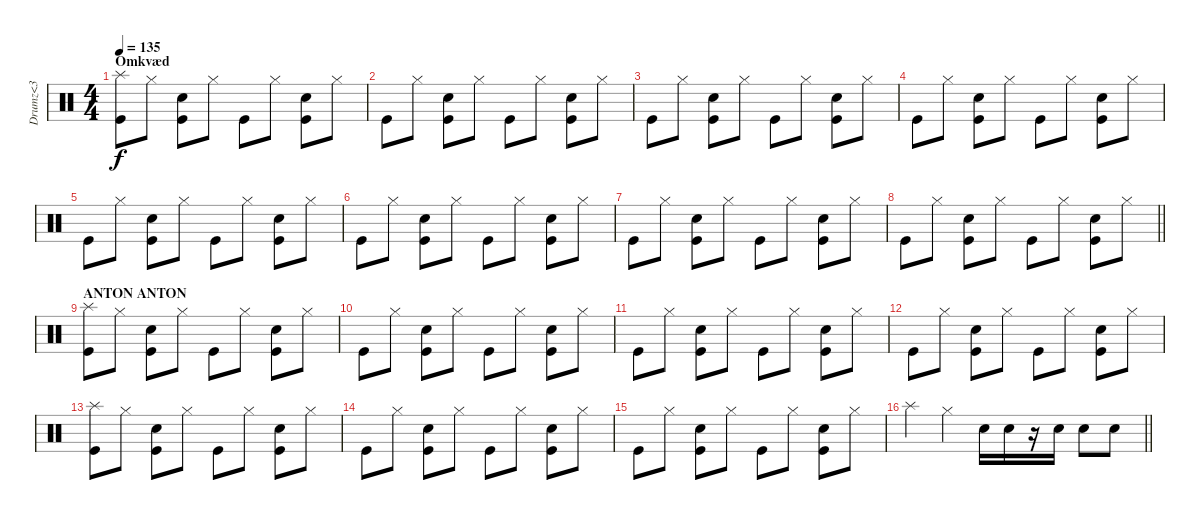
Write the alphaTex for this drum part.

\track ("Drumz<3" "Drumz<3") {instrument percussion}
\staff {score}
\articulation defaults
\ts (4 4)
\section ("" "Omkvæd")
\tempo 135
\clef neutral
\ks c
("Splash (hit)" "Kick (hit)").8{dy f} "Hi-Hat (closed)".8 ("Kick (hit)" "Snare (hit) 2").8 "Hi-Hat (closed)".8 "Kick (hit)".8 "Hi-Hat (closed)".8 ("Kick (hit)" "Snare (hit) 2").8 "Hi-Hat (closed)".8 |
"Kick (hit)".8 "Hi-Hat (closed)".8 ("Kick (hit)" "Snare (hit) 2").8 "Hi-Hat (closed)".8 "Kick (hit)".8 "Hi-Hat (closed)".8 ("Kick (hit)" "Snare (hit) 2").8 "Hi-Hat (closed)".8 |
"Kick (hit)".8 "Hi-Hat (closed)".8 ("Kick (hit)" "Snare (hit) 2").8 "Hi-Hat (closed)".8 "Kick (hit)".8 "Hi-Hat (closed)".8 ("Kick (hit)" "Snare (hit) 2").8 "Hi-Hat (closed)".8 |
"Kick (hit)".8 "Hi-Hat (closed)".8 ("Kick (hit)" "Snare (hit) 2").8 "Hi-Hat (closed)".8 "Kick (hit)".8 "Hi-Hat (closed)".8 ("Kick (hit)" "Snare (hit) 2").8 "Hi-Hat (closed)".8 |
"Kick (hit)".8 "Hi-Hat (closed)".8 ("Kick (hit)" "Snare (hit) 2").8 "Hi-Hat (closed)".8 "Kick (hit)".8 "Hi-Hat (closed)".8 ("Kick (hit)" "Snare (hit) 2").8 "Hi-Hat (closed)".8 |
"Kick (hit)".8 "Hi-Hat (closed)".8 ("Kick (hit)" "Snare (hit) 2").8 "Hi-Hat (closed)".8 "Kick (hit)".8 "Hi-Hat (closed)".8 ("Kick (hit)" "Snare (hit) 2").8 "Hi-Hat (closed)".8 |
"Kick (hit)".8 "Hi-Hat (closed)".8 ("Kick (hit)" "Snare (hit) 2").8 "Hi-Hat (closed)".8 "Kick (hit)".8 "Hi-Hat (closed)".8 ("Kick (hit)" "Snare (hit) 2").8 "Hi-Hat (closed)".8 |
\barLineRight lightlight "Kick (hit)".8 "Hi-Hat (closed)".8
("Kick (hit)" "Snare (hit) 2").8 "Hi-Hat (closed)".8 "Kick (hit)".8 "Hi-Hat (closed)".8 ("Kick (hit)" "Snare (hit) 2").8 "Hi-Hat (closed)".8 |
\section ("" "ANTON ANTON")
("Splash (hit)" "Kick (hit)").8 "Hi-Hat (closed)".8 ("Kick (hit)" "Snare (hit) 2").8 "Hi-Hat (closed)".8 "Kick (hit)".8 "Hi-Hat (closed)".8 ("Kick (hit)" "Snare (hit) 2").8 "Hi-Hat (closed)".8 |
"Kick (hit)".8 "Hi-Hat (closed)".8 ("Kick (hit)" "Snare (hit) 2").8 "Hi-Hat (closed)".8 "Kick (hit)".8 "Hi-Hat (closed)".8 ("Kick (hit)" "Snare (hit) 2").8 "Hi-Hat (closed)".8 |
"Kick (hit)".8 "Hi-Hat (closed)".8 ("Kick (hit)" "Snare (hit) 2").8 "Hi-Hat (closed)".8 "Kick (hit)".8 "Hi-Hat (closed)".8 ("Kick (hit)" "Snare (hit) 2").8 "Hi-Hat (closed)".8 |
"Kick (hit)".8 "Hi-Hat (closed)".8 ("Kick (hit)" "Snare (hit) 2").8 "Hi-Hat (closed)".8 "Kick (hit)".8 "Hi-Hat (closed)".8 ("Kick (hit)" "Snare (hit) 2").8 "Hi-Hat (closed)".8 |
("Splash (hit)" "Kick (hit)").8 "Hi-Hat (closed)".8 ("Kick (hit)" "Snare (hit) 2").8 "Hi-Hat (closed)".8 "Kick (hit)".8 "Hi-Hat (closed)".8 ("Kick (hit)" "Snare (hit) 2").8 "Hi-Hat (closed)".8 |
"Kick (hit)".8 "Hi-Hat (closed)".8 ("Kick (hit)" "Snare (hit) 2").8 "Hi-Hat (closed)".8 "Kick (hit)".8 "Hi-Hat (closed)".8 ("Kick (hit)" "Snare (hit) 2").8 "Hi-Hat (closed)".8 |
"Kick (hit)".8 "Hi-Hat (closed)".8 ("Kick (hit)" "Snare (hit) 2").8 "Hi-Hat (closed)".8 "Kick (hit)".8 "Hi-Hat (closed)".8 ("Kick (hit)" "Snare (hit) 2").8 "Hi-Hat (closed)".8 |
\barLineRight lightlight "Splash (hit)".4 "Hi-Hat (closed)".4 "Snare (hit) 2".16 "Snare (hit) 2".16
r.16 "Snare (hit) 2".16 "Snare (hit) 2".8 "Snare (hit) 2".8
